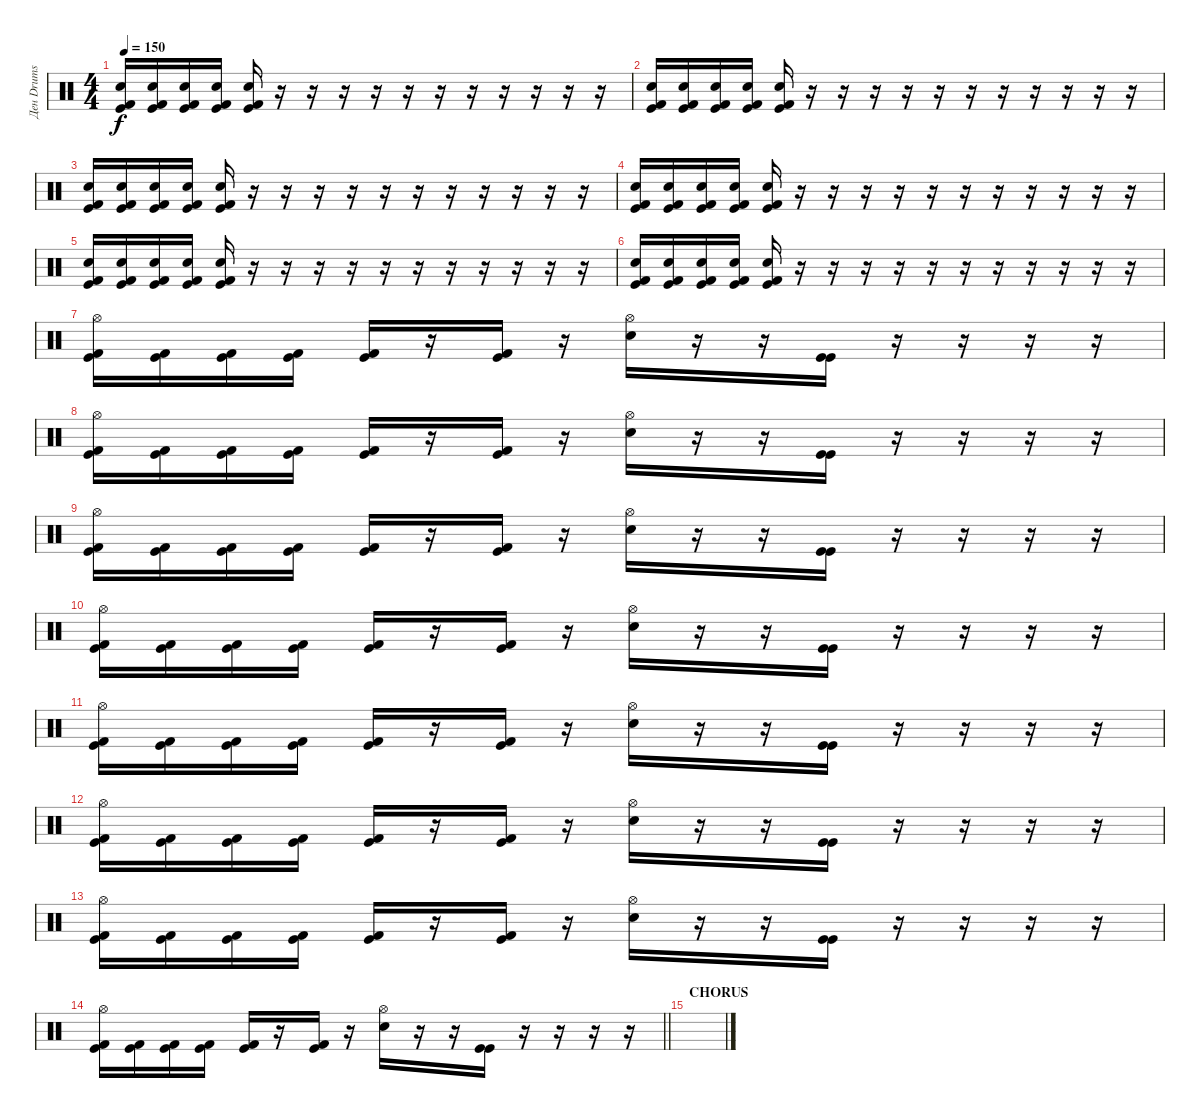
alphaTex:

\track ("Ден Drums" "Ден Drums") {instrument percussion}
\staff {score}
\articulation defaults
\ts (4 4)
\tempo 150
\clef neutral
\ks c
("Electric Snare (hit)" "Kick (hit)" "Kick (hit) 2").16{dy f} ("Electric Snare (hit)" "Kick (hit)" "Kick (hit) 2").16 ("Electric Snare (hit)" "Kick (hit)" "Kick (hit) 2").16 ("Electric Snare (hit)" "Kick (hit)" "Kick (hit) 2").16 ("Electric Snare (hit)" "Kick (hit)" "Kick (hit) 2").16 r.16 r.16 r.16 r.16 r.16 r.16 r.16 r.16 r.16 r.16 r.16 |
("Electric Snare (hit)" "Kick (hit)" "Kick (hit) 2").16 ("Electric Snare (hit)" "Kick (hit)" "Kick (hit) 2").16 ("Electric Snare (hit)" "Kick (hit)" "Kick (hit) 2").16 ("Electric Snare (hit)" "Kick (hit)" "Kick (hit) 2").16 ("Electric Snare (hit)" "Kick (hit)" "Kick (hit) 2").16 r.16 r.16 r.16 r.16 r.16 r.16 r.16 r.16 r.16 r.16 r.16 |
("Electric Snare (hit)" "Kick (hit)" "Kick (hit) 2").16 ("Electric Snare (hit)" "Kick (hit)" "Kick (hit) 2").16 ("Electric Snare (hit)" "Kick (hit)" "Kick (hit) 2").16 ("Electric Snare (hit)" "Kick (hit)" "Kick (hit) 2").16 ("Electric Snare (hit)" "Kick (hit)" "Kick (hit) 2").16 r.16 r.16 r.16 r.16 r.16 r.16 r.16 r.16 r.16 r.16 r.16 |
("Electric Snare (hit)" "Kick (hit)" "Kick (hit) 2").16 ("Electric Snare (hit)" "Kick (hit)" "Kick (hit) 2").16 ("Electric Snare (hit)" "Kick (hit)" "Kick (hit) 2").16 ("Electric Snare (hit)" "Kick (hit)" "Kick (hit) 2").16 ("Electric Snare (hit)" "Kick (hit)" "Kick (hit) 2").16 r.16 r.16 r.16 r.16 r.16 r.16 r.16 r.16 r.16 r.16 r.16 |
("Electric Snare (hit)" "Kick (hit)" "Kick (hit) 2").16 ("Electric Snare (hit)" "Kick (hit)" "Kick (hit) 2").16 ("Electric Snare (hit)" "Kick (hit)" "Kick (hit) 2").16 ("Electric Snare (hit)" "Kick (hit)" "Kick (hit) 2").16 ("Electric Snare (hit)" "Kick (hit)" "Kick (hit) 2").16 r.16 r.16 r.16 r.16 r.16 r.16 r.16 r.16 r.16 r.16 r.16 |
("Electric Snare (hit)" "Kick (hit)" "Kick (hit) 2").16 ("Electric Snare (hit)" "Kick (hit)" "Kick (hit) 2").16 ("Electric Snare (hit)" "Kick (hit)" "Kick (hit) 2").16 ("Electric Snare (hit)" "Kick (hit)" "Kick (hit) 2").16 ("Electric Snare (hit)" "Kick (hit)" "Kick (hit) 2").16 r.16 r.16 r.16 r.16 r.16 r.16 r.16 r.16 r.16 r.16 r.16 |
("Hi-Hat (open)" "Kick (hit)" "Kick (hit) 2").16 ("Kick (hit)" "Kick (hit) 2").16 ("Kick (hit)" "Kick (hit) 2").16 ("Kick (hit)" "Kick (hit) 2").16 ("Kick (hit)" "Kick (hit) 2").16 r.16 ("Kick (hit)" "Kick (hit) 2").16 r.16 ("Hi-Hat (open)" "Electric Snare (hit)").16 r.16 r.16 ("Kick (hit)" "Kick (hit)").16 r.16 r.16 r.16 r.16 |
("Hi-Hat (open)" "Kick (hit)" "Kick (hit) 2").16 ("Kick (hit)" "Kick (hit) 2").16 ("Kick (hit)" "Kick (hit) 2").16 ("Kick (hit)" "Kick (hit) 2").16 ("Kick (hit)" "Kick (hit) 2").16 r.16 ("Kick (hit)" "Kick (hit) 2").16 r.16 ("Hi-Hat (open)" "Electric Snare (hit)").16 r.16 r.16 ("Kick (hit)" "Kick (hit)").16 r.16 r.16 r.16 r.16 |
("Hi-Hat (open)" "Kick (hit)" "Kick (hit) 2").16 ("Kick (hit)" "Kick (hit) 2").16 ("Kick (hit)" "Kick (hit) 2").16 ("Kick (hit)" "Kick (hit) 2").16 ("Kick (hit)" "Kick (hit) 2").16 r.16 ("Kick (hit)" "Kick (hit) 2").16 r.16 ("Hi-Hat (open)" "Electric Snare (hit)").16 r.16 r.16 ("Kick (hit)" "Kick (hit)").16 r.16 r.16 r.16 r.16 |
("Hi-Hat (open)" "Kick (hit)" "Kick (hit) 2").16 ("Kick (hit)" "Kick (hit) 2").16 ("Kick (hit)" "Kick (hit) 2").16 ("Kick (hit)" "Kick (hit) 2").16 ("Kick (hit)" "Kick (hit) 2").16 r.16 ("Kick (hit)" "Kick (hit) 2").16 r.16 ("Hi-Hat (open)" "Electric Snare (hit)").16 r.16 r.16 ("Kick (hit)" "Kick (hit)").16 r.16 r.16 r.16 r.16 |
("Hi-Hat (open)" "Kick (hit)" "Kick (hit) 2").16 ("Kick (hit)" "Kick (hit) 2").16 ("Kick (hit)" "Kick (hit) 2").16 ("Kick (hit)" "Kick (hit) 2").16 ("Kick (hit)" "Kick (hit) 2").16 r.16 ("Kick (hit)" "Kick (hit) 2").16 r.16 ("Hi-Hat (open)" "Electric Snare (hit)").16 r.16 r.16 ("Kick (hit)" "Kick (hit)").16 r.16 r.16 r.16 r.16 |
("Hi-Hat (open)" "Kick (hit)" "Kick (hit) 2").16 ("Kick (hit)" "Kick (hit) 2").16 ("Kick (hit)" "Kick (hit) 2").16 ("Kick (hit)" "Kick (hit) 2").16 ("Kick (hit)" "Kick (hit) 2").16 r.16 ("Kick (hit)" "Kick (hit) 2").16 r.16 ("Hi-Hat (open)" "Electric Snare (hit)").16 r.16 r.16 ("Kick (hit)" "Kick (hit)").16 r.16 r.16 r.16 r.16 |
("Hi-Hat (open)" "Kick (hit)" "Kick (hit) 2").16 ("Kick (hit)" "Kick (hit) 2").16 ("Kick (hit)" "Kick (hit) 2").16 ("Kick (hit)" "Kick (hit) 2").16 ("Kick (hit)" "Kick (hit) 2").16 r.16 ("Kick (hit)" "Kick (hit) 2").16 r.16 ("Hi-Hat (open)" "Electric Snare (hit)").16 r.16 r.16 ("Kick (hit)" "Kick (hit)").16 r.16 r.16 r.16 r.16 |
\barLineRight lightlight
("Hi-Hat (open)" "Kick (hit)" "Kick (hit) 2").16 ("Kick (hit)" "Kick (hit) 2").16 ("Kick (hit)" "Kick (hit) 2").16 ("Kick (hit)" "Kick (hit) 2").16 ("Kick (hit)" "Kick (hit) 2").16 r.16 ("Kick (hit)" "Kick (hit) 2").16 r.16 ("Hi-Hat (open)" "Electric Snare (hit)").16 r.16 r.16 ("Kick (hit)" "Kick (hit)").16 r.16 r.16 r.16 r.16 |
\section ("" "CHORUS")
